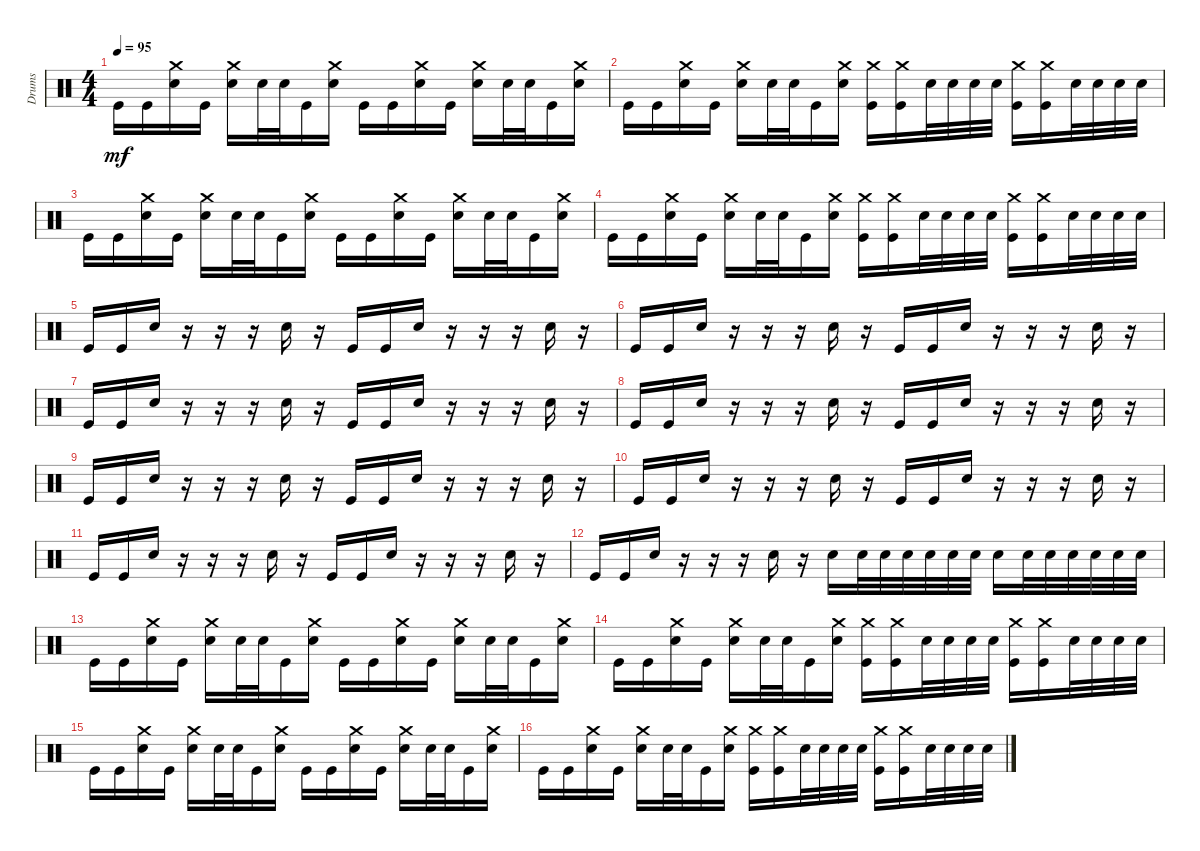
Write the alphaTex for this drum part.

\track ("Drums" "Drums") {instrument percussion}
\staff {score}
\articulation defaults
\ts (4 4)
\tempo 95
\clef neutral
\ks c "Kick (hit)".16{dy mf} "Kick (hit)".16
("Crash medium (hit)" "Snare (hit) 2").16 "Kick (hit)".16 ("Crash medium (hit)" "Snare (hit) 2").16 "Snare (hit) 2".32 "Snare (hit) 2".32 "Kick (hit)".16 ("Crash medium (hit)" "Snare (hit) 2").16 "Kick (hit)".16 "Kick (hit)".16 ("Crash medium (hit)" "Snare (hit) 2").16 "Kick (hit)".16 ("Crash medium (hit)" "Snare (hit) 2").16 "Snare (hit) 2".32 "Snare (hit) 2".32 "Kick (hit)".16 ("Crash medium (hit)" "Snare (hit) 2").16 |
"Kick (hit)".16 "Kick (hit)".16 ("Crash medium (hit)" "Snare (hit) 2").16 "Kick (hit)".16 ("Crash medium (hit)" "Snare (hit) 2").16 "Snare (hit) 2".32 "Snare (hit) 2".32 "Kick (hit)".16 ("Crash medium (hit)" "Snare (hit) 2").16 ("Crash medium (hit)" "Kick (hit)").16 ("Crash medium (hit)" "Kick (hit)").16 "Snare (hit) 2".32 "Snare (hit) 2".32 "Snare (hit) 2".32 "Snare (hit) 2".32 ("Crash medium (hit)" "Kick (hit)").16 ("Crash medium (hit)" "Kick (hit)").16 "Snare (hit) 2".32 "Snare (hit) 2".32 "Snare (hit) 2".32 "Snare (hit) 2".32 |
"Kick (hit)".16 "Kick (hit)".16 ("Crash medium (hit)" "Snare (hit) 2").16 "Kick (hit)".16 ("Crash medium (hit)" "Snare (hit) 2").16 "Snare (hit) 2".32 "Snare (hit) 2".32 "Kick (hit)".16 ("Crash medium (hit)" "Snare (hit) 2").16 "Kick (hit)".16 "Kick (hit)".16 ("Crash medium (hit)" "Snare (hit) 2").16 "Kick (hit)".16 ("Crash medium (hit)" "Snare (hit) 2").16 "Snare (hit) 2".32 "Snare (hit) 2".32 "Kick (hit)".16 ("Crash medium (hit)" "Snare (hit) 2").16 |
"Kick (hit)".16 "Kick (hit)".16 ("Crash medium (hit)" "Snare (hit) 2").16 "Kick (hit)".16 ("Crash medium (hit)" "Snare (hit) 2").16 "Snare (hit) 2".32 "Snare (hit) 2".32 "Kick (hit)".16 ("Crash medium (hit)" "Snare (hit) 2").16 ("Crash medium (hit)" "Kick (hit)").16 ("Crash medium (hit)" "Kick (hit)").16 "Snare (hit) 2".32 "Snare (hit) 2".32 "Snare (hit) 2".32 "Snare (hit) 2".32 ("Crash medium (hit)" "Kick (hit)").16 ("Crash medium (hit)" "Kick (hit)").16 "Snare (hit) 2".32 "Snare (hit) 2".32 "Snare (hit) 2".32 "Snare (hit) 2".32 |
"Kick (hit)".16 "Kick (hit)".16 "Snare (hit) 2".16 r.16 r.16 r.16 "Snare (hit) 2".16 r.16 "Kick (hit)".16 "Kick (hit)".16 "Snare (hit) 2".16 r.16 r.16 r.16 "Snare (hit) 2".16 r.16 |
"Kick (hit)".16 "Kick (hit)".16 "Snare (hit) 2".16 r.16 r.16 r.16 "Snare (hit) 2".16 r.16 "Kick (hit)".16 "Kick (hit)".16 "Snare (hit) 2".16 r.16 r.16 r.16 "Snare (hit) 2".16 r.16 |
"Kick (hit)".16 "Kick (hit)".16 "Snare (hit) 2".16 r.16 r.16 r.16 "Snare (hit) 2".16 r.16 "Kick (hit)".16 "Kick (hit)".16 "Snare (hit) 2".16 r.16 r.16 r.16 "Snare (hit) 2".16 r.16 |
"Kick (hit)".16 "Kick (hit)".16 "Snare (hit) 2".16 r.16 r.16 r.16 "Snare (hit) 2".16 r.16 "Kick (hit)".16 "Kick (hit)".16 "Snare (hit) 2".16 r.16 r.16 r.16 "Snare (hit) 2".16 r.16 |
"Kick (hit)".16 "Kick (hit)".16 "Snare (hit) 2".16 r.16 r.16 r.16 "Snare (hit) 2".16 r.16 "Kick (hit)".16 "Kick (hit)".16 "Snare (hit) 2".16 r.16 r.16 r.16 "Snare (hit) 2".16 r.16 |
"Kick (hit)".16 "Kick (hit)".16 "Snare (hit) 2".16 r.16 r.16 r.16 "Snare (hit) 2".16 r.16 "Kick (hit)".16 "Kick (hit)".16 "Snare (hit) 2".16 r.16 r.16 r.16 "Snare (hit) 2".16 r.16 |
"Kick (hit)".16 "Kick (hit)".16 "Snare (hit) 2".16 r.16 r.16 r.16 "Snare (hit) 2".16 r.16 "Kick (hit)".16 "Kick (hit)".16 "Snare (hit) 2".16 r.16 r.16 r.16 "Snare (hit) 2".16 r.16 |
"Kick (hit)".16 "Kick (hit)".16 "Snare (hit) 2".16 r.16 r.16 r.16 "Snare (hit) 2".16 r.16 "Snare (hit) 2".16 "Snare (hit) 2".32 "Snare (hit) 2".32 "Snare (hit) 2".32 "Snare (hit) 2".32 "Snare (hit) 2".32 "Snare (hit) 2".32 "Snare (hit) 2".16 "Snare (hit) 2".32 "Snare (hit) 2".32 "Snare (hit) 2".32 "Snare (hit) 2".32 "Snare (hit) 2".32 "Snare (hit) 2".32 |
"Kick (hit)".16 "Kick (hit)".16 ("Crash medium (hit)" "Snare (hit) 2").16 "Kick (hit)".16 ("Crash medium (hit)" "Snare (hit) 2").16 "Snare (hit) 2".32 "Snare (hit) 2".32 "Kick (hit)".16 ("Crash medium (hit)" "Snare (hit) 2").16 "Kick (hit)".16 "Kick (hit)".16 ("Crash medium (hit)" "Snare (hit) 2").16 "Kick (hit)".16 ("Crash medium (hit)" "Snare (hit) 2").16 "Snare (hit) 2".32 "Snare (hit) 2".32 "Kick (hit)".16 ("Crash medium (hit)" "Snare (hit) 2").16 |
"Kick (hit)".16 "Kick (hit)".16 ("Crash medium (hit)" "Snare (hit) 2").16 "Kick (hit)".16 ("Crash medium (hit)" "Snare (hit) 2").16 "Snare (hit) 2".32 "Snare (hit) 2".32 "Kick (hit)".16 ("Crash medium (hit)" "Snare (hit) 2").16 ("Crash medium (hit)" "Kick (hit)").16 ("Crash medium (hit)" "Kick (hit)").16 "Snare (hit) 2".32 "Snare (hit) 2".32 "Snare (hit) 2".32 "Snare (hit) 2".32 ("Crash medium (hit)" "Kick (hit)").16 ("Crash medium (hit)" "Kick (hit)").16 "Snare (hit) 2".32 "Snare (hit) 2".32 "Snare (hit) 2".32 "Snare (hit) 2".32 |
"Kick (hit)".16 "Kick (hit)".16 ("Crash medium (hit)" "Snare (hit) 2").16 "Kick (hit)".16 ("Crash medium (hit)" "Snare (hit) 2").16 "Snare (hit) 2".32 "Snare (hit) 2".32 "Kick (hit)".16 ("Crash medium (hit)" "Snare (hit) 2").16 "Kick (hit)".16 "Kick (hit)".16 ("Crash medium (hit)" "Snare (hit) 2").16 "Kick (hit)".16 ("Crash medium (hit)" "Snare (hit) 2").16 "Snare (hit) 2".32 "Snare (hit) 2".32 "Kick (hit)".16 ("Crash medium (hit)" "Snare (hit) 2").16 |
"Kick (hit)".16 "Kick (hit)".16 ("Crash medium (hit)" "Snare (hit) 2").16 "Kick (hit)".16 ("Crash medium (hit)" "Snare (hit) 2").16 "Snare (hit) 2".32 "Snare (hit) 2".32 "Kick (hit)".16 ("Crash medium (hit)" "Snare (hit) 2").16 ("Crash medium (hit)" "Kick (hit)").16 ("Crash medium (hit)" "Kick (hit)").16 "Snare (hit) 2".32 "Snare (hit) 2".32 "Snare (hit) 2".32 "Snare (hit) 2".32 ("Crash medium (hit)" "Kick (hit)").16 ("Crash medium (hit)" "Kick (hit)").16 "Snare (hit) 2".32 "Snare (hit) 2".32 "Snare (hit) 2".32 "Snare (hit) 2".32
